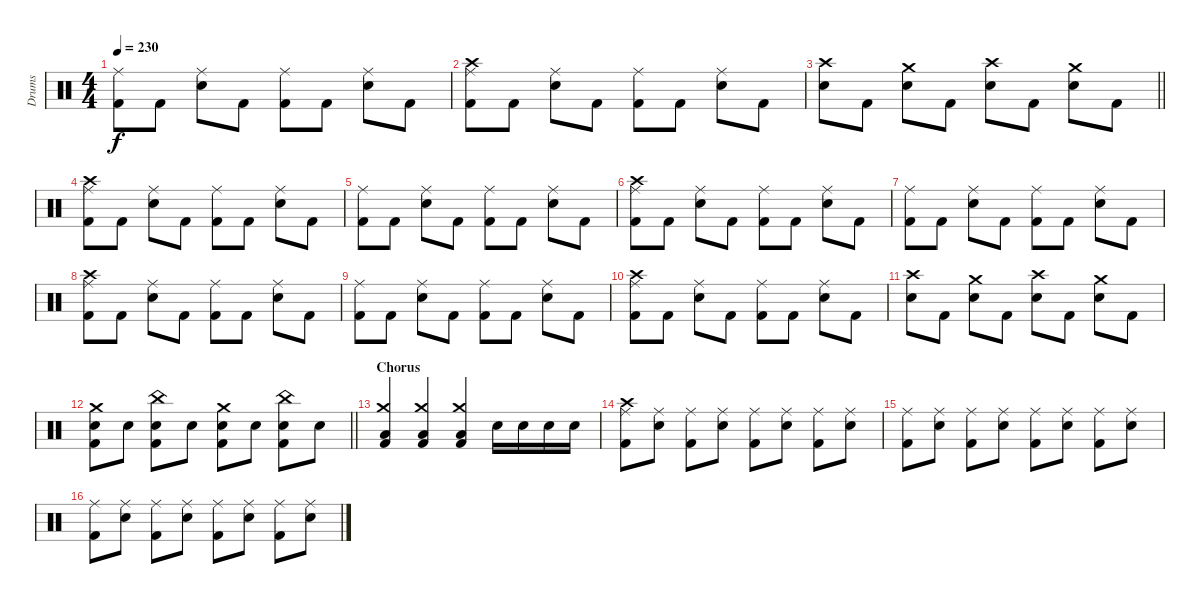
\track ("Drums" "Drums") {instrument percussion}
\staff {score}
\articulation defaults
\ts (4 4)
\tempo 230
\clef neutral
\ks c
("Ride (middle)" "Kick (hit) 2").8{dy f} "Kick (hit) 2".8 ("Ride (middle)" "Snare (hit) 2").8 "Kick (hit) 2".8 ("Ride (middle)" "Kick (hit) 2").8 "Kick (hit) 2".8 ("Ride (middle)" "Snare (hit) 2").8 "Kick (hit) 2".8 |
("Crash high (hit)" "Ride (middle)" "Kick (hit) 2").8 "Kick (hit) 2".8 ("Ride (middle)" "Snare (hit) 2").8 "Kick (hit) 2".8 ("Ride (middle)" "Kick (hit) 2").8 "Kick (hit) 2".8 ("Ride (middle)" "Snare (hit) 2").8 "Kick (hit) 2".8 |
\barLineRight lightlight
("Crash high (hit)" "Snare (hit) 2").8 "Kick (hit) 2".8 ("Crash medium (hit)" "Snare (hit) 2").8 "Kick (hit) 2".8 ("Crash high (hit)" "Snare (hit) 2").8 "Kick (hit) 2".8 ("Crash medium (hit)" "Snare (hit) 2").8 "Kick (hit) 2".8 |
("Crash high (hit)" "Ride (middle)" "Kick (hit) 2").8 "Kick (hit) 2".8 ("Ride (middle)" "Snare (hit) 2").8 "Kick (hit) 2".8 ("Ride (middle)" "Kick (hit) 2").8 "Kick (hit) 2".8 ("Ride (middle)" "Snare (hit) 2").8 "Kick (hit) 2".8 |
("Ride (middle)" "Kick (hit) 2").8 "Kick (hit) 2".8 ("Ride (middle)" "Snare (hit) 2").8 "Kick (hit) 2".8 ("Ride (middle)" "Kick (hit) 2").8 "Kick (hit) 2".8 ("Ride (middle)" "Snare (hit) 2").8 "Kick (hit) 2".8 |
("Crash high (hit)" "Ride (middle)" "Kick (hit) 2").8 "Kick (hit) 2".8 ("Ride (middle)" "Snare (hit) 2").8 "Kick (hit) 2".8 ("Ride (middle)" "Kick (hit) 2").8 "Kick (hit) 2".8 ("Ride (middle)" "Snare (hit) 2").8 "Kick (hit) 2".8 |
("Ride (middle)" "Kick (hit) 2").8 "Kick (hit) 2".8 ("Ride (middle)" "Snare (hit) 2").8 "Kick (hit) 2".8 ("Ride (middle)" "Kick (hit) 2").8 "Kick (hit) 2".8 ("Ride (middle)" "Snare (hit) 2").8 "Kick (hit) 2".8 |
("Crash high (hit)" "Ride (middle)" "Kick (hit) 2").8 "Kick (hit) 2".8 ("Ride (middle)" "Snare (hit) 2").8 "Kick (hit) 2".8 ("Ride (middle)" "Kick (hit) 2").8 "Kick (hit) 2".8 ("Ride (middle)" "Snare (hit) 2").8 "Kick (hit) 2".8 |
("Ride (middle)" "Kick (hit) 2").8 "Kick (hit) 2".8 ("Ride (middle)" "Snare (hit) 2").8 "Kick (hit) 2".8 ("Ride (middle)" "Kick (hit) 2").8 "Kick (hit) 2".8 ("Ride (middle)" "Snare (hit) 2").8 "Kick (hit) 2".8 |
("Crash high (hit)" "Ride (middle)" "Kick (hit) 2").8 "Kick (hit) 2".8 ("Ride (middle)" "Snare (hit) 2").8 "Kick (hit) 2".8 ("Ride (middle)" "Kick (hit) 2").8 "Kick (hit) 2".8 ("Ride (middle)" "Snare (hit) 2").8 "Kick (hit) 2".8 |
("Crash high (hit)" "Snare (hit) 2").8 "Kick (hit) 2".8 ("Crash medium (hit)" "Snare (hit) 2").8 "Kick (hit) 2".8 ("Crash high (hit)" "Snare (hit) 2").8 "Kick (hit) 2".8 ("Crash medium (hit)" "Snare (hit) 2").8 "Kick (hit) 2".8 |
\barLineRight lightlight
("Crash medium (hit)" "Snare (hit) 2" "Kick (hit) 2").8 "Snare (hit) 2".8 ("China (hit)" "Snare (hit) 2" "Kick (hit) 2").8 "Snare (hit) 2".8 ("Crash medium (hit)" "Snare (hit) 2" "Kick (hit) 2").8 "Snare (hit) 2".8 ("China (hit)" "Snare (hit) 2" "Kick (hit) 2").8 "Snare (hit) 2".8 |
\section ("" "Chorus")
("Crash medium (hit)" "Low Floor Tom (hit)" "Kick (hit) 2").4 ("Crash medium (hit)" "Low Floor Tom (hit)" "Kick (hit) 2").4 ("Crash medium (hit)" "Low Floor Tom (hit)" "Kick (hit) 2").4 "Snare (hit) 2".16 "Snare (hit) 2".16 "Snare (hit) 2".16 "Snare (hit) 2".16 |
("Crash high (hit)" "Ride (middle)" "Kick (hit) 2").8 ("Ride (middle)" "Snare (hit) 2").8 ("Ride (middle)" "Kick (hit) 2").8 ("Ride (middle)" "Snare (hit) 2").8 ("Ride (middle)" "Kick (hit) 2").8 ("Ride (middle)" "Snare (hit) 2").8 ("Ride (middle)" "Kick (hit) 2").8 ("Ride (middle)" "Snare (hit) 2").8 |
("Ride (middle)" "Kick (hit) 2").8 ("Ride (middle)" "Snare (hit) 2").8 ("Ride (middle)" "Kick (hit) 2").8 ("Ride (middle)" "Snare (hit) 2").8 ("Ride (middle)" "Kick (hit) 2").8 ("Ride (middle)" "Snare (hit) 2").8 ("Ride (middle)" "Kick (hit) 2").8 ("Ride (middle)" "Snare (hit) 2").8 |
("Ride (middle)" "Kick (hit) 2").8 ("Ride (middle)" "Snare (hit) 2").8 ("Ride (middle)" "Kick (hit) 2").8 ("Ride (middle)" "Snare (hit) 2").8 ("Ride (middle)" "Kick (hit) 2").8 ("Ride (middle)" "Snare (hit) 2").8 ("Ride (middle)" "Kick (hit) 2").8 ("Ride (middle)" "Snare (hit) 2").8
